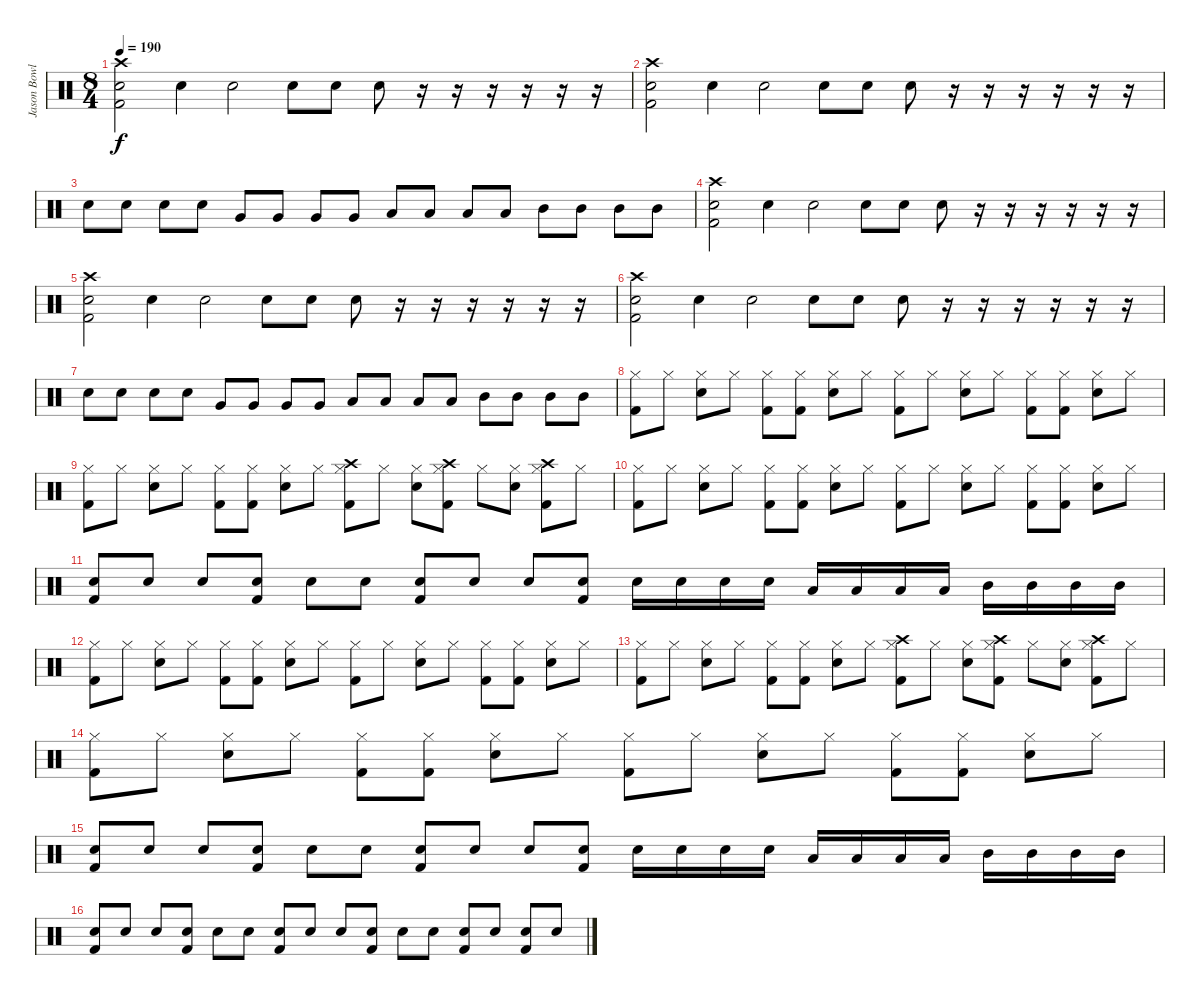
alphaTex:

\track ("Jason Bowld" "Jason Bowl") {instrument percussion}
\staff {score}
\articulation defaults
\ts (8 4)
\tempo 190
\clef neutral
\ks c
("Kick (hit) 2" "Snare (hit) 2" "Crash high (hit)").2{dy f} "Snare (hit) 2".4 "Snare (hit) 2".2 "Snare (hit) 2".8 "Snare (hit) 2".8 "Snare (hit) 2".8 r.16 r.16 r.16 r.16 r.16 r.16 |
("Kick (hit) 2" "Snare (hit) 2" "Crash high (hit)").2 "Snare (hit) 2".4 "Snare (hit) 2".2 "Snare (hit) 2".8 "Snare (hit) 2".8 "Snare (hit) 2".8 r.16 r.16 r.16 r.16 r.16 r.16 |
"Snare (hit) 2".8 "Snare (hit) 2".8 "Snare (hit) 2".8 "Snare (hit) 2".8 "Very Low Tom (hit)".8 "Very Low Tom (hit)".8 "Very Low Tom (hit)".8 "Very Low Tom (hit)".8 "Low Tom (hit)".8 "Low Tom (hit)".8 "Low Tom (hit)".8 "Low Tom (hit)".8 "Mid Tom (hit)".8 "Mid Tom (hit)".8 "Mid Tom (hit)".8 "Mid Tom (hit)".8 |
("Kick (hit) 2" "Snare (hit) 2" "Crash high (hit)").2 "Snare (hit) 2".4 "Snare (hit) 2".2 "Snare (hit) 2".8 "Snare (hit) 2".8 "Snare (hit) 2".8 r.16 r.16 r.16 r.16 r.16 r.16 |
("Kick (hit) 2" "Snare (hit) 2" "Crash high (hit)").2 "Snare (hit) 2".4 "Snare (hit) 2".2 "Snare (hit) 2".8 "Snare (hit) 2".8 "Snare (hit) 2".8 r.16 r.16 r.16 r.16 r.16 r.16 |
("Kick (hit) 2" "Snare (hit) 2" "Crash high (hit)").2 "Snare (hit) 2".4 "Snare (hit) 2".2 "Snare (hit) 2".8 "Snare (hit) 2".8 "Snare (hit) 2".8 r.16 r.16 r.16 r.16 r.16 r.16 |
"Snare (hit) 2".8 "Snare (hit) 2".8 "Snare (hit) 2".8 "Snare (hit) 2".8 "Very Low Tom (hit)".8 "Very Low Tom (hit)".8 "Very Low Tom (hit)".8 "Very Low Tom (hit)".8 "Low Tom (hit)".8 "Low Tom (hit)".8 "Low Tom (hit)".8 "Low Tom (hit)".8 "Mid Tom (hit)".8 "Mid Tom (hit)".8 "Mid Tom (hit)".8 "Mid Tom (hit)".8 |
("Hi-Hat (closed)" "Kick (hit) 2").8 "Hi-Hat (closed)".8 ("Hi-Hat (closed)" "Snare (hit) 2").8 "Hi-Hat (closed)".8 ("Hi-Hat (closed)" "Kick (hit) 2").8 ("Hi-Hat (closed)" "Kick (hit) 2").8 ("Hi-Hat (closed)" "Snare (hit) 2").8 "Hi-Hat (closed)".8 ("Hi-Hat (closed)" "Kick (hit) 2").8 "Hi-Hat (closed)".8 ("Hi-Hat (closed)" "Snare (hit) 2").8 "Hi-Hat (closed)".8 ("Hi-Hat (closed)" "Kick (hit) 2").8 ("Hi-Hat (closed)" "Kick (hit) 2").8 ("Hi-Hat (closed)" "Snare (hit) 2").8 "Hi-Hat (closed)".8 |
("Hi-Hat (closed)" "Kick (hit) 2").8 "Hi-Hat (closed)".8 ("Hi-Hat (closed)" "Snare (hit) 2").8 "Hi-Hat (closed)".8 ("Hi-Hat (closed)" "Kick (hit) 2").8 ("Hi-Hat (closed)" "Kick (hit) 2").8 ("Hi-Hat (closed)" "Snare (hit) 2").8 "Hi-Hat (closed)".8 ("Hi-Hat (closed)" "Kick (hit) 2" "Crash high (hit)").8 "Hi-Hat (closed)".8 ("Hi-Hat (closed)" "Snare (hit) 2").8 ("Hi-Hat (closed)" "Kick (hit) 2" "Crash high (hit)").8 "Hi-Hat (closed)".8 ("Hi-Hat (closed)" "Snare (hit) 2").8 ("Hi-Hat (closed)" "Kick (hit) 2" "Crash high (hit)").8 "Hi-Hat (closed)".8 |
("Hi-Hat (closed)" "Kick (hit) 2").8 "Hi-Hat (closed)".8 ("Hi-Hat (closed)" "Snare (hit) 2").8 "Hi-Hat (closed)".8 ("Hi-Hat (closed)" "Kick (hit) 2").8 ("Hi-Hat (closed)" "Kick (hit) 2").8 ("Hi-Hat (closed)" "Snare (hit) 2").8 "Hi-Hat (closed)".8 ("Hi-Hat (closed)" "Kick (hit) 2").8 "Hi-Hat (closed)".8 ("Hi-Hat (closed)" "Snare (hit) 2").8 "Hi-Hat (closed)".8 ("Hi-Hat (closed)" "Kick (hit) 2").8 ("Hi-Hat (closed)" "Kick (hit) 2").8 ("Hi-Hat (closed)" "Snare (hit) 2").8 "Hi-Hat (closed)".8 |
("Snare (hit) 2" "Kick (hit) 2").8 "Snare (hit) 2".8 "Snare (hit) 2".8 ("Snare (hit) 2" "Kick (hit) 2").8 "Snare (hit) 2".8 "Snare (hit) 2".8 ("Snare (hit) 2" "Kick (hit) 2").8 "Snare (hit) 2".8 "Snare (hit) 2".8 ("Snare (hit) 2" "Kick (hit) 2").8 "Snare (hit) 2".16 "Snare (hit) 2".16 "Snare (hit) 2".16 "Snare (hit) 2".16 "Low Tom (hit)".16 "Low Tom (hit)".16 "Low Tom (hit)".16 "Low Tom (hit)".16 "Mid Tom (hit)".16 "Mid Tom (hit)".16 "Mid Tom (hit)".16 "Mid Tom (hit)".16 |
("Hi-Hat (closed)" "Kick (hit) 2").8 "Hi-Hat (closed)".8 ("Hi-Hat (closed)" "Snare (hit) 2").8 "Hi-Hat (closed)".8 ("Hi-Hat (closed)" "Kick (hit) 2").8 ("Hi-Hat (closed)" "Kick (hit) 2").8 ("Hi-Hat (closed)" "Snare (hit) 2").8 "Hi-Hat (closed)".8 ("Hi-Hat (closed)" "Kick (hit) 2").8 "Hi-Hat (closed)".8 ("Hi-Hat (closed)" "Snare (hit) 2").8 "Hi-Hat (closed)".8 ("Hi-Hat (closed)" "Kick (hit) 2").8 ("Hi-Hat (closed)" "Kick (hit) 2").8 ("Hi-Hat (closed)" "Snare (hit) 2").8 "Hi-Hat (closed)".8 |
("Hi-Hat (closed)" "Kick (hit) 2").8 "Hi-Hat (closed)".8 ("Hi-Hat (closed)" "Snare (hit) 2").8 "Hi-Hat (closed)".8 ("Hi-Hat (closed)" "Kick (hit) 2").8 ("Hi-Hat (closed)" "Kick (hit) 2").8 ("Hi-Hat (closed)" "Snare (hit) 2").8 "Hi-Hat (closed)".8 ("Hi-Hat (closed)" "Kick (hit) 2" "Crash high (hit)").8 "Hi-Hat (closed)".8 ("Hi-Hat (closed)" "Snare (hit) 2").8 ("Hi-Hat (closed)" "Kick (hit) 2" "Crash high (hit)").8 "Hi-Hat (closed)".8 ("Hi-Hat (closed)" "Snare (hit) 2").8 ("Hi-Hat (closed)" "Kick (hit) 2" "Crash high (hit)").8 "Hi-Hat (closed)".8 |
("Hi-Hat (closed)" "Kick (hit) 2").8 "Hi-Hat (closed)".8 ("Hi-Hat (closed)" "Snare (hit) 2").8 "Hi-Hat (closed)".8 ("Hi-Hat (closed)" "Kick (hit) 2").8 ("Hi-Hat (closed)" "Kick (hit) 2").8 ("Hi-Hat (closed)" "Snare (hit) 2").8 "Hi-Hat (closed)".8 ("Hi-Hat (closed)" "Kick (hit) 2").8 "Hi-Hat (closed)".8 ("Hi-Hat (closed)" "Snare (hit) 2").8 "Hi-Hat (closed)".8 ("Hi-Hat (closed)" "Kick (hit) 2").8 ("Hi-Hat (closed)" "Kick (hit) 2").8 ("Hi-Hat (closed)" "Snare (hit) 2").8 "Hi-Hat (closed)".8 |
("Snare (hit) 2" "Kick (hit) 2").8 "Snare (hit) 2".8 "Snare (hit) 2".8 ("Snare (hit) 2" "Kick (hit) 2").8 "Snare (hit) 2".8 "Snare (hit) 2".8 ("Snare (hit) 2" "Kick (hit) 2").8 "Snare (hit) 2".8 "Snare (hit) 2".8 ("Snare (hit) 2" "Kick (hit) 2").8 "Snare (hit) 2".16 "Snare (hit) 2".16 "Snare (hit) 2".16 "Snare (hit) 2".16 "Low Tom (hit)".16 "Low Tom (hit)".16 "Low Tom (hit)".16 "Low Tom (hit)".16 "Mid Tom (hit)".16 "Mid Tom (hit)".16 "Mid Tom (hit)".16 "Mid Tom (hit)".16 |
("Snare (hit) 2" "Kick (hit) 2").8 "Snare (hit) 2".8 "Snare (hit) 2".8 ("Snare (hit) 2" "Kick (hit) 2").8 "Snare (hit) 2".8 "Snare (hit) 2".8 ("Snare (hit) 2" "Kick (hit) 2").8 "Snare (hit) 2".8 "Snare (hit) 2".8 ("Snare (hit) 2" "Kick (hit) 2").8 "Snare (hit) 2".8 "Snare (hit) 2".8 ("Snare (hit) 2" "Kick (hit) 2").8 "Snare (hit) 2".8 ("Snare (hit) 2" "Kick (hit) 2").8 "Snare (hit) 2".8
